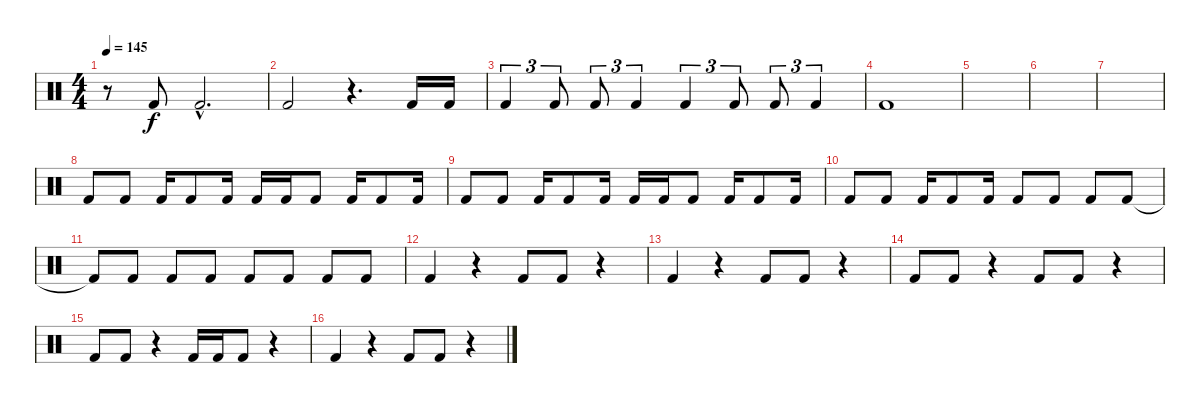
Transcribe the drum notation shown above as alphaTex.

\track "" {instrument percussion}
\staff {score}
\articulation defaults
\ts (4 4)
\tempo 145
\clef neutral
\ks c
r.8{dy f} "Kick (hit) 2".8 "Kick (hit) 2"{hac}.2{d} |
"Kick (hit) 2".2 r.4{d} "Kick (hit) 2".16 "Kick (hit) 2".16 |
"Kick (hit) 2".4{tu (3 2)} "Kick (hit) 2".8{tu (3 2)} "Kick (hit) 2".8{tu (3 2)} "Kick (hit) 2".4{tu (3 2)} "Kick (hit) 2".4{tu (3 2)} "Kick (hit) 2".8{tu (3 2)} "Kick (hit) 2".8{tu (3 2)} "Kick (hit) 2".4{tu (3 2)} |
"Kick (hit) 2".1 |
|
|
|
"Kick (hit) 2".8 "Kick (hit) 2".8 "Kick (hit) 2".16 "Kick (hit) 2".8 "Kick (hit) 2".16 "Kick (hit) 2".16 "Kick (hit) 2".16 "Kick (hit) 2".8 "Kick (hit) 2".16 "Kick (hit) 2".8 "Kick (hit) 2".16 |
"Kick (hit) 2".8 "Kick (hit) 2".8 "Kick (hit) 2".16 "Kick (hit) 2".8 "Kick (hit) 2".16 "Kick (hit) 2".16 "Kick (hit) 2".16 "Kick (hit) 2".8 "Kick (hit) 2".16 "Kick (hit) 2".8 "Kick (hit) 2".16 |
"Kick (hit) 2".8 "Kick (hit) 2".8 "Kick (hit) 2".16 "Kick (hit) 2".8 "Kick (hit) 2".16 "Kick (hit) 2".8 "Kick (hit) 2".8 "Kick (hit) 2".8 "Kick (hit) 2".8 |
"Kick (hit) 2"{t}.8 "Kick (hit) 2".8 "Kick (hit) 2".8 "Kick (hit) 2".8 "Kick (hit) 2".8 "Kick (hit) 2".8 "Kick (hit) 2".8 "Kick (hit) 2".8 |
"Kick (hit) 2".4 r.4 "Kick (hit) 2".8 "Kick (hit) 2".8 r.4 |
"Kick (hit) 2".4 r.4 "Kick (hit) 2".8 "Kick (hit) 2".8 r.4 |
"Kick (hit) 2".8 "Kick (hit) 2".8 r.4 "Kick (hit) 2".8 "Kick (hit) 2".8 r.4 |
"Kick (hit) 2".8 "Kick (hit) 2".8 r.4 "Kick (hit) 2".16 "Kick (hit) 2".16 "Kick (hit) 2".8 r.4 |
"Kick (hit) 2".4 r.4 "Kick (hit) 2".8 "Kick (hit) 2".8 r.4
